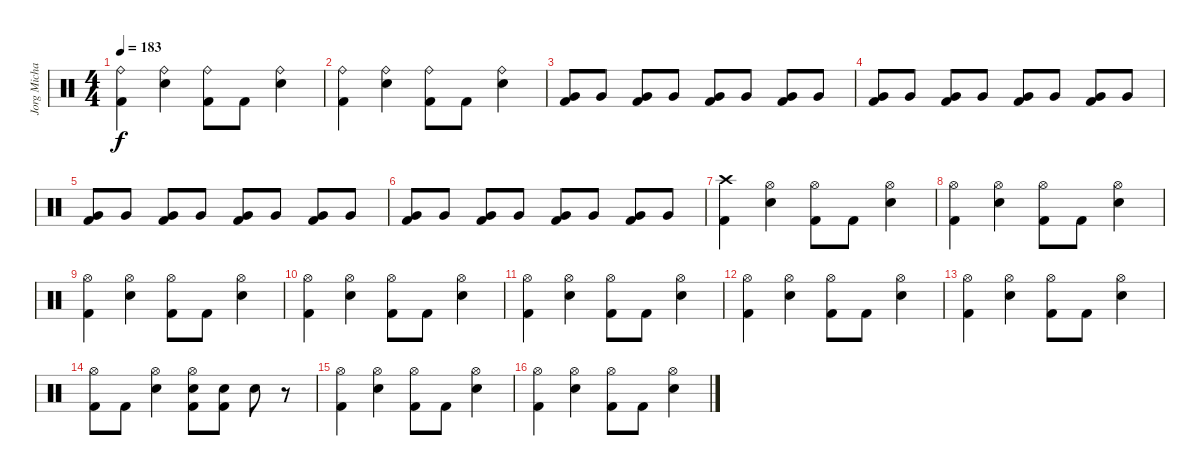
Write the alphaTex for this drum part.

\track ("Jorg Michael" "Jorg Micha") {instrument percussion}
\staff {score}
\articulation defaults
\ts (4 4)
\tempo 183
\clef neutral
\ks c
("Kick (hit) 2" "Ride (bell)").4{dy f} ("Snare (hit) 2" "Ride (bell)").4 ("Kick (hit) 2" "Ride (bell)").8 "Kick (hit) 2".8 ("Snare (hit) 2" "Ride (bell)").4 |
("Kick (hit) 2" "Ride (bell)").4 ("Snare (hit) 2" "Ride (bell)").4 ("Kick (hit) 2" "Ride (bell)").8 "Kick (hit) 2".8 ("Snare (hit) 2" "Ride (bell)").4 |
("Kick (hit) 2" "Very Low Tom (hit)").8 "Very Low Tom (hit)".8 ("Very Low Tom (hit)" "Kick (hit) 2").8 "Very Low Tom (hit)".8 ("Very Low Tom (hit)" "Kick (hit) 2").8 "Very Low Tom (hit)".8 ("Very Low Tom (hit)" "Kick (hit) 2").8 "Very Low Tom (hit)".8 |
("Very Low Tom (hit)" "Kick (hit) 2").8 "Very Low Tom (hit)".8 ("Very Low Tom (hit)" "Kick (hit) 2").8 "Very Low Tom (hit)".8 ("Very Low Tom (hit)" "Kick (hit) 2").8 "Very Low Tom (hit)".8 ("Very Low Tom (hit)" "Kick (hit) 2").8 "Very Low Tom (hit)".8 |
("Very Low Tom (hit)" "Kick (hit) 2").8 "Very Low Tom (hit)".8 ("Very Low Tom (hit)" "Kick (hit) 2").8 "Very Low Tom (hit)".8 ("Very Low Tom (hit)" "Kick (hit) 2").8 "Very Low Tom (hit)".8 ("Very Low Tom (hit)" "Kick (hit) 2").8 "Very Low Tom (hit)".8 |
("Very Low Tom (hit)" "Kick (hit) 2").8 "Very Low Tom (hit)".8 ("Very Low Tom (hit)" "Kick (hit) 2").8 "Very Low Tom (hit)".8 ("Very Low Tom (hit)" "Kick (hit) 2").8 "Very Low Tom (hit)".8 ("Very Low Tom (hit)" "Kick (hit) 2").8 "Very Low Tom (hit)".8 |
("Kick (hit) 2" "Crash high (hit)").4 ("Snare (hit) 2" "Hi-Hat (open)").4 ("Kick (hit) 2" "Hi-Hat (open)").8 "Kick (hit) 2".8 ("Snare (hit) 2" "Hi-Hat (open)").4 |
("Kick (hit) 2" "Hi-Hat (open)").4 ("Snare (hit) 2" "Hi-Hat (open)").4 ("Kick (hit) 2" "Hi-Hat (open)").8 "Kick (hit) 2".8 ("Snare (hit) 2" "Hi-Hat (open)").4 |
("Kick (hit) 2" "Hi-Hat (open)").4 ("Snare (hit) 2" "Hi-Hat (open)").4 ("Kick (hit) 2" "Hi-Hat (open)").8 "Kick (hit) 2".8 ("Snare (hit) 2" "Hi-Hat (open)").4 |
("Kick (hit) 2" "Hi-Hat (open)").4 ("Snare (hit) 2" "Hi-Hat (open)").4 ("Kick (hit) 2" "Hi-Hat (open)").8 "Kick (hit) 2".8 ("Snare (hit) 2" "Hi-Hat (open)").4 |
("Kick (hit) 2" "Hi-Hat (open)").4 ("Snare (hit) 2" "Hi-Hat (open)").4 ("Kick (hit) 2" "Hi-Hat (open)").8 "Kick (hit) 2".8 ("Snare (hit) 2" "Hi-Hat (open)").4 |
("Kick (hit) 2" "Hi-Hat (open)").4 ("Snare (hit) 2" "Hi-Hat (open)").4 ("Kick (hit) 2" "Hi-Hat (open)").8 "Kick (hit) 2".8 ("Snare (hit) 2" "Hi-Hat (open)").4 |
("Kick (hit) 2" "Hi-Hat (open)").4 ("Snare (hit) 2" "Hi-Hat (open)").4 ("Kick (hit) 2" "Hi-Hat (open)").8 "Kick (hit) 2".8 ("Snare (hit) 2" "Hi-Hat (open)").4 |
("Kick (hit) 2" "Hi-Hat (open)").8 "Kick (hit) 2".8 ("Snare (hit) 2" "Hi-Hat (open)").4 ("Snare (hit) 2" "Kick (hit) 2" "Hi-Hat (open)").8 ("Snare (hit) 2" "Kick (hit) 2").8 "Snare (hit) 2".8 r.8 |
("Kick (hit) 2" "Hi-Hat (open)").4 ("Snare (hit) 2" "Hi-Hat (open)").4 ("Kick (hit) 2" "Hi-Hat (open)").8 "Kick (hit) 2".8 ("Snare (hit) 2" "Hi-Hat (open)").4 |
("Kick (hit) 2" "Hi-Hat (open)").4 ("Snare (hit) 2" "Hi-Hat (open)").4 ("Kick (hit) 2" "Hi-Hat (open)").8 "Kick (hit) 2".8 ("Snare (hit) 2" "Hi-Hat (open)").4
